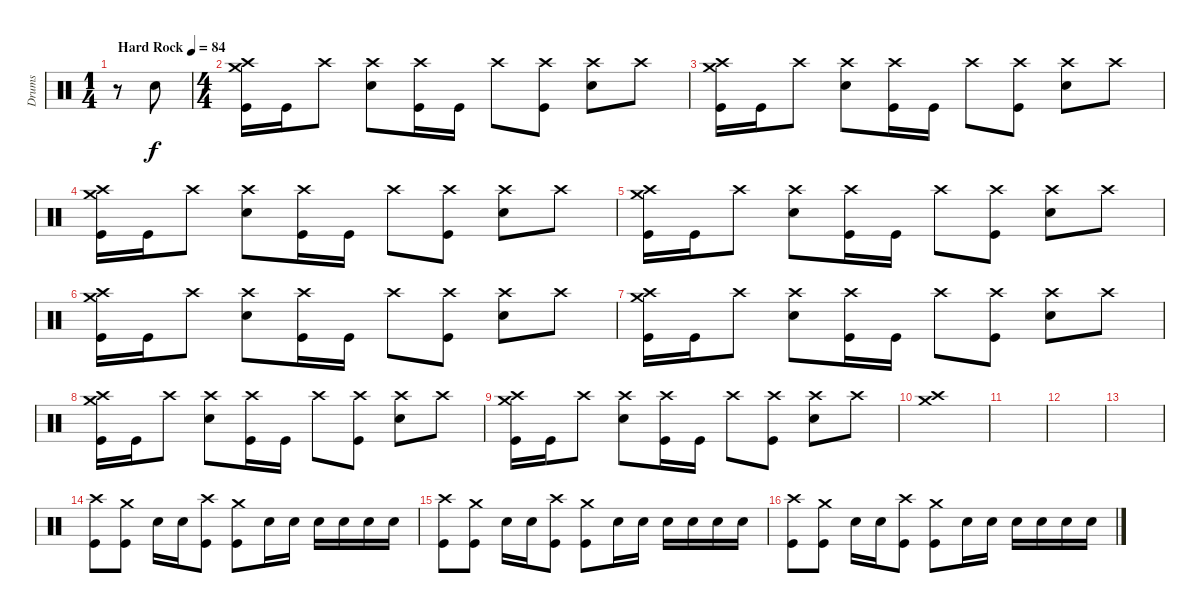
\track ("Drums" "Drums") {instrument percussion}
\staff {score}
\articulation defaults
\ts (1 4)
\tempo (84 "Hard Rock")
\clef neutral
\ks c
r.8{dy f} "Snare (hit) 2".8 |
\ts (4 4)
("Crash medium (hit)" "Crash high (hit)" "Kick (hit)").16 "Kick (hit)".16 "Crash high (hit)".8 ("Crash high (hit)" "Snare (hit) 2").8 ("Crash high (hit)" "Kick (hit)").16 "Kick (hit)".16 "Crash high (hit)".8 ("Crash high (hit)" "Kick (hit)").8 ("Crash high (hit)" "Snare (hit) 2").8 "Crash high (hit)".8 |
("Crash medium (hit)" "Crash high (hit)" "Kick (hit)").16 "Kick (hit)".16 "Crash high (hit)".8 ("Crash high (hit)" "Snare (hit) 2").8 ("Crash high (hit)" "Kick (hit)").16 "Kick (hit)".16 "Crash high (hit)".8 ("Crash high (hit)" "Kick (hit)").8 ("Crash high (hit)" "Snare (hit) 2").8 "Crash high (hit)".8 |
("Crash medium (hit)" "Crash high (hit)" "Kick (hit)").16 "Kick (hit)".16 "Crash high (hit)".8 ("Crash high (hit)" "Snare (hit) 2").8 ("Crash high (hit)" "Kick (hit)").16 "Kick (hit)".16 "Crash high (hit)".8 ("Crash high (hit)" "Kick (hit)").8 ("Crash high (hit)" "Snare (hit) 2").8 "Crash high (hit)".8 |
("Crash medium (hit)" "Crash high (hit)" "Kick (hit)").16 "Kick (hit)".16 "Crash high (hit)".8 ("Crash high (hit)" "Snare (hit) 2").8 ("Crash high (hit)" "Kick (hit)").16 "Kick (hit)".16 "Crash high (hit)".8 ("Crash high (hit)" "Kick (hit)").8 ("Crash high (hit)" "Snare (hit) 2").8 "Crash high (hit)".8 |
("Crash medium (hit)" "Crash high (hit)" "Kick (hit)").16 "Kick (hit)".16 "Crash high (hit)".8 ("Crash high (hit)" "Snare (hit) 2").8 ("Crash high (hit)" "Kick (hit)").16 "Kick (hit)".16 "Crash high (hit)".8 ("Crash high (hit)" "Kick (hit)").8 ("Crash high (hit)" "Snare (hit) 2").8 "Crash high (hit)".8 |
("Crash medium (hit)" "Crash high (hit)" "Kick (hit)").16 "Kick (hit)".16 "Crash high (hit)".8 ("Crash high (hit)" "Snare (hit) 2").8 ("Crash high (hit)" "Kick (hit)").16 "Kick (hit)".16 "Crash high (hit)".8 ("Crash high (hit)" "Kick (hit)").8 ("Crash high (hit)" "Snare (hit) 2").8 "Crash high (hit)".8 |
("Crash medium (hit)" "Crash high (hit)" "Kick (hit)").16 "Kick (hit)".16 "Crash high (hit)".8 ("Crash high (hit)" "Snare (hit) 2").8 ("Crash high (hit)" "Kick (hit)").16 "Kick (hit)".16 "Crash high (hit)".8 ("Crash high (hit)" "Kick (hit)").8 ("Crash high (hit)" "Snare (hit) 2").8 "Crash high (hit)".8 |
("Crash medium (hit)" "Crash high (hit)" "Kick (hit)").16 "Kick (hit)".16 "Crash high (hit)".8 ("Crash high (hit)" "Snare (hit) 2").8 ("Crash high (hit)" "Kick (hit)").16 "Kick (hit)".16 "Crash high (hit)".8 ("Crash high (hit)" "Kick (hit)").8 ("Crash high (hit)" "Snare (hit) 2").8 "Crash high (hit)".8 |
("Crash medium (hit)" "Crash high (hit)").1 |
|
|
|
("Crash high (hit)" "Kick (hit)").8 ("Crash medium (hit)" "Kick (hit)").8 "Snare (hit) 2".16 "Snare (hit) 2".16 ("Crash high (hit)" "Kick (hit)").8 ("Crash medium (hit)" "Kick (hit)").8 "Snare (hit) 2".16 "Snare (hit) 2".16 "Snare (hit) 2".16 "Snare (hit) 2".16 "Snare (hit) 2".16 "Snare (hit) 2".16 |
("Crash high (hit)" "Kick (hit)").8 ("Crash medium (hit)" "Kick (hit)").8 "Snare (hit) 2".16 "Snare (hit) 2".16 ("Crash high (hit)" "Kick (hit)").8 ("Crash medium (hit)" "Kick (hit)").8 "Snare (hit) 2".16 "Snare (hit) 2".16 "Snare (hit) 2".16 "Snare (hit) 2".16 "Snare (hit) 2".16 "Snare (hit) 2".16 |
("Crash high (hit)" "Kick (hit)").8 ("Crash medium (hit)" "Kick (hit)").8 "Snare (hit) 2".16 "Snare (hit) 2".16 ("Crash high (hit)" "Kick (hit)").8 ("Crash medium (hit)" "Kick (hit)").8 "Snare (hit) 2".16 "Snare (hit) 2".16 "Snare (hit) 2".16 "Snare (hit) 2".16 "Snare (hit) 2".16 "Snare (hit) 2".16
